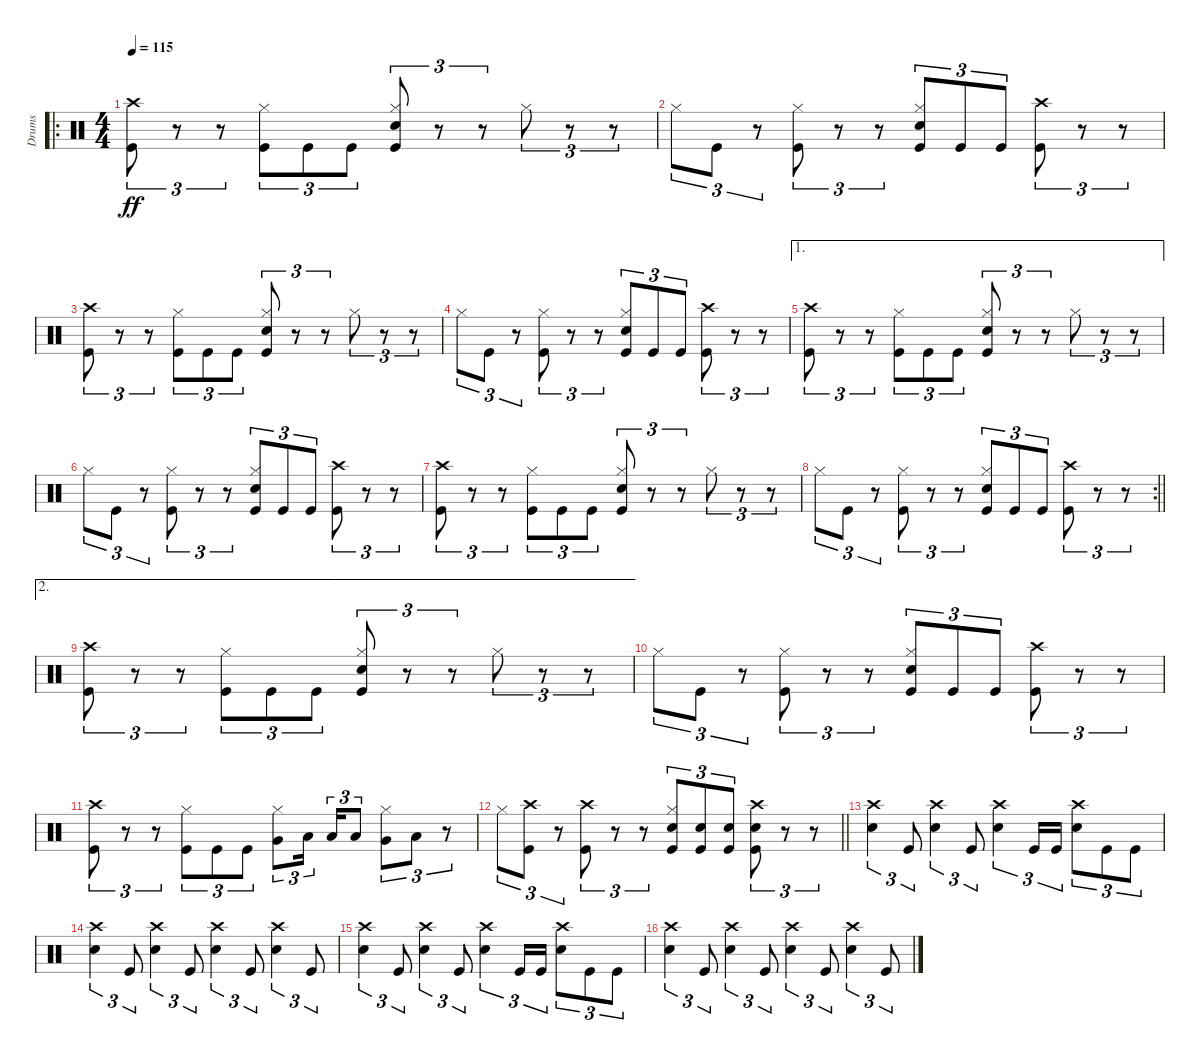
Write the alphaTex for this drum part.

\track ("Drums" "Drums") {instrument percussion}
\staff {score}
\articulation defaults
\ro
\ts (4 4)
\tempo 115
\clef neutral
\ks c
("Crash high (hit)" "Kick (hit)").8{tu (3 2) dy ff} r.8{tu (3 2)} r.8{tu (3 2)} ("Hi-Hat (closed)" "Kick (hit)").8{tu (3 2)} "Kick (hit)".8{tu (3 2)} "Kick (hit)".8{tu (3 2)} ("Hi-Hat (closed)" "Snare (hit) 2" "Kick (hit)").8{tu (3 2)} r.8{tu (3 2)} r.8{tu (3 2)} "Hi-Hat (closed)".8{tu (3 2)} r.8{tu (3 2)} r.8{tu (3 2)} |
"Hi-Hat (closed)".8{tu (3 2)} "Kick (hit)".8{tu (3 2)} r.8{tu (3 2)} ("Hi-Hat (closed)" "Kick (hit)").8{tu (3 2)} r.8{tu (3 2)} r.8{tu (3 2)} ("Hi-Hat (closed)" "Snare (hit) 2" "Kick (hit)").8{tu (3 2)} "Kick (hit)".8{tu (3 2)} "Kick (hit)".8{tu (3 2)} ("Crash high (hit)" "Kick (hit)").8{tu (3 2)} r.8{tu (3 2)} r.8{tu (3 2)} |
("Crash high (hit)" "Kick (hit)").8{tu (3 2)} r.8{tu (3 2)} r.8{tu (3 2)} ("Hi-Hat (closed)" "Kick (hit)").8{tu (3 2)} "Kick (hit)".8{tu (3 2)} "Kick (hit)".8{tu (3 2)} ("Hi-Hat (closed)" "Snare (hit) 2" "Kick (hit)").8{tu (3 2)} r.8{tu (3 2)} r.8{tu (3 2)} "Hi-Hat (closed)".8{tu (3 2)} r.8{tu (3 2)} r.8{tu (3 2)} |
"Hi-Hat (closed)".8{tu (3 2)} "Kick (hit)".8{tu (3 2)} r.8{tu (3 2)} ("Hi-Hat (closed)" "Kick (hit)").8{tu (3 2)} r.8{tu (3 2)} r.8{tu (3 2)} ("Hi-Hat (closed)" "Snare (hit) 2" "Kick (hit)").8{tu (3 2)} "Kick (hit)".8{tu (3 2)} "Kick (hit)".8{tu (3 2)} ("Crash high (hit)" "Kick (hit)").8{tu (3 2)} r.8{tu (3 2)} r.8{tu (3 2)} |
\ae 1
("Crash high (hit)" "Kick (hit)").8{tu (3 2)} r.8{tu (3 2)} r.8{tu (3 2)} ("Hi-Hat (closed)" "Kick (hit)").8{tu (3 2)} "Kick (hit)".8{tu (3 2)} "Kick (hit)".8{tu (3 2)} ("Hi-Hat (closed)" "Snare (hit) 2" "Kick (hit)").8{tu (3 2)} r.8{tu (3 2)} r.8{tu (3 2)} "Hi-Hat (closed)".8{tu (3 2)} r.8{tu (3 2)} r.8{tu (3 2)} |
"Hi-Hat (closed)".8{tu (3 2)} "Kick (hit)".8{tu (3 2)} r.8{tu (3 2)} ("Hi-Hat (closed)" "Kick (hit)").8{tu (3 2)} r.8{tu (3 2)} r.8{tu (3 2)} ("Hi-Hat (closed)" "Snare (hit) 2" "Kick (hit)").8{tu (3 2)} "Kick (hit)".8{tu (3 2)} "Kick (hit)".8{tu (3 2)} ("Crash high (hit)" "Kick (hit)").8{tu (3 2)} r.8{tu (3 2)} r.8{tu (3 2)} |
("Crash high (hit)" "Kick (hit)").8{tu (3 2)} r.8{tu (3 2)} r.8{tu (3 2)} ("Hi-Hat (closed)" "Kick (hit)").8{tu (3 2)} "Kick (hit)".8{tu (3 2)} "Kick (hit)".8{tu (3 2)} ("Hi-Hat (closed)" "Snare (hit) 2" "Kick (hit)").8{tu (3 2)} r.8{tu (3 2)} r.8{tu (3 2)} "Hi-Hat (closed)".8{tu (3 2)} r.8{tu (3 2)} r.8{tu (3 2)} |
\rc 2
\barLineRight lightlight "Hi-Hat (closed)".8{tu (3 2)} "Kick (hit)".8{tu (3 2)}
r.8{tu (3 2)} ("Hi-Hat (closed)" "Kick (hit)").8{tu (3 2)} r.8{tu (3 2)} r.8{tu (3 2)} ("Hi-Hat (closed)" "Snare (hit) 2" "Kick (hit)").8{tu (3 2)} "Kick (hit)".8{tu (3 2)} "Kick (hit)".8{tu (3 2)} ("Crash high (hit)" "Kick (hit)").8{tu (3 2)} r.8{tu (3 2)} r.8{tu (3 2)} |
\ae 2
("Crash high (hit)" "Kick (hit)").8{tu (3 2)} r.8{tu (3 2)} r.8{tu (3 2)} ("Hi-Hat (closed)" "Kick (hit)").8{tu (3 2)} "Kick (hit)".8{tu (3 2)} "Kick (hit)".8{tu (3 2)} ("Hi-Hat (closed)" "Snare (hit) 2" "Kick (hit)").8{tu (3 2)} r.8{tu (3 2)} r.8{tu (3 2)} "Hi-Hat (closed)".8{tu (3 2)} r.8{tu (3 2)} r.8{tu (3 2)} |
"Hi-Hat (closed)".8{tu (3 2)} "Kick (hit)".8{tu (3 2)} r.8{tu (3 2)} ("Hi-Hat (closed)" "Kick (hit)").8{tu (3 2)} r.8{tu (3 2)} r.8{tu (3 2)} ("Hi-Hat (closed)" "Snare (hit) 2" "Kick (hit)").8{tu (3 2)} "Kick (hit)".8{tu (3 2)} "Kick (hit)".8{tu (3 2)} ("Crash high (hit)" "Kick (hit)").8{tu (3 2)} r.8{tu (3 2)} r.8{tu (3 2)} |
("Crash high (hit)" "Kick (hit)").8{tu (3 2)} r.8{tu (3 2)} r.8{tu (3 2)} ("Hi-Hat (closed)" "Kick (hit)").8{tu (3 2)} "Kick (hit)".8{tu (3 2)} "Kick (hit)".8{tu (3 2)} ("Hi-Hat (closed)" "Very Low Tom (hit)").8{tu (3 2)} "Low Tom (hit)".16{tu (3 2) beam splitsecondary} "Low Floor Tom (hit)".16{tu (3 2)} "Low Tom (hit)".8{tu (3 2)} ("Hi-Hat (closed)" "Very Low Tom (hit)").8{tu (3 2)} "Low Floor Tom (hit)".8{tu (3 2)} r.8{tu (3 2)} |
\barLineRight lightlight "Hi-Hat (closed)".8{tu (3 2)}
("Crash high (hit)" "Kick (hit)").8{tu (3 2)} r.8{tu (3 2)} ("Crash high (hit)" "Kick (hit)").8{tu (3 2)} r.8{tu (3 2)} r.8{tu (3 2)} ("Hi-Hat (closed)" "Snare (hit) 2" "Kick (hit)").8{tu (3 2)} ("Snare (hit) 2" "Kick (hit)").8{tu (3 2)} ("Snare (hit) 2" "Kick (hit)").8{tu (3 2)} ("Crash high (hit)" "Snare (hit) 2" "Kick (hit)").8{tu (3 2)} r.8{tu (3 2)} r.8{tu (3 2)} |
("Crash high (hit)" "Snare (hit) 2").4{tu (3 2)} "Kick (hit)".8{tu (3 2)} ("Crash high (hit)" "Snare (hit) 2").4{tu (3 2)} "Kick (hit)".8{tu (3 2)} ("Crash high (hit)" "Snare (hit) 2").4{tu (3 2)} "Kick (hit)".16{tu (3 2)} "Kick (hit)".16{tu (3 2)} ("Crash high (hit)" "Snare (hit) 2").8{tu (3 2)} "Kick (hit)".8{tu (3 2)} "Kick (hit)".8{tu (3 2)} |
("Crash high (hit)" "Snare (hit) 2").4{tu (3 2)} "Kick (hit)".8{tu (3 2)} ("Crash high (hit)" "Snare (hit) 2").4{tu (3 2)} "Kick (hit)".8{tu (3 2)} ("Crash high (hit)" "Snare (hit) 2").4{tu (3 2)} "Kick (hit)".8{tu (3 2)} ("Crash high (hit)" "Snare (hit) 2").4{tu (3 2)} "Kick (hit)".8{tu (3 2)} |
("Crash high (hit)" "Snare (hit) 2").4{tu (3 2)} "Kick (hit)".8{tu (3 2)} ("Crash high (hit)" "Snare (hit) 2").4{tu (3 2)} "Kick (hit)".8{tu (3 2)} ("Crash high (hit)" "Snare (hit) 2").4{tu (3 2)} "Kick (hit)".16{tu (3 2)} "Kick (hit)".16{tu (3 2)} ("Crash high (hit)" "Snare (hit) 2").8{tu (3 2)} "Kick (hit)".8{tu (3 2)} "Kick (hit)".8{tu (3 2)} |
("Crash high (hit)" "Snare (hit) 2").4{tu (3 2)} "Kick (hit)".8{tu (3 2)} ("Crash high (hit)" "Snare (hit) 2").4{tu (3 2)} "Kick (hit)".8{tu (3 2)} ("Crash high (hit)" "Snare (hit) 2").4{tu (3 2)} "Kick (hit)".8{tu (3 2)} ("Crash high (hit)" "Snare (hit) 2").4{tu (3 2)} "Kick (hit)".8{tu (3 2)}
